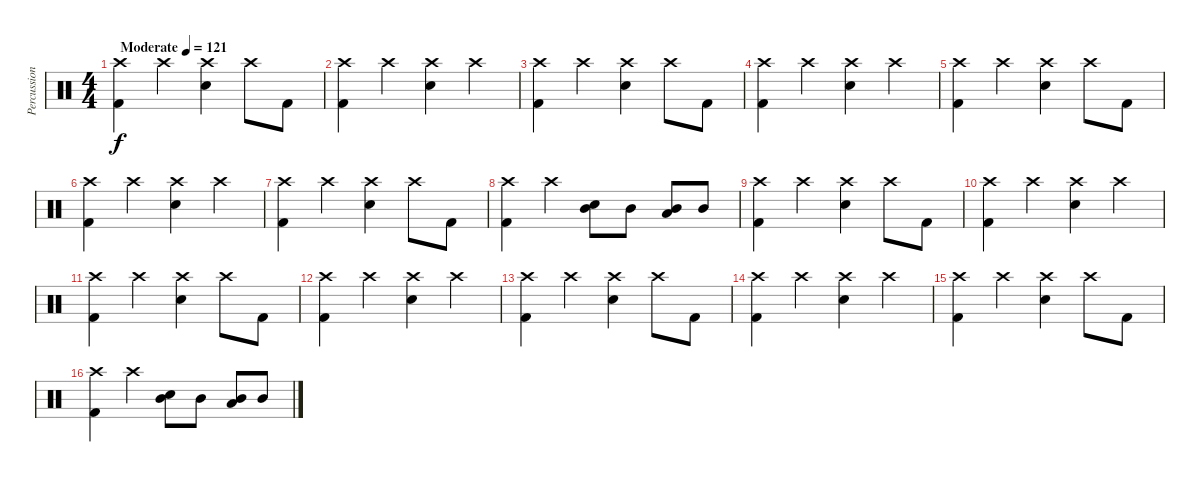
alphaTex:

\track ("Percussion" "Percussion") {instrument percussion}
\staff {score}
\articulation defaults
\ts (4 4)
\tempo (121 "Moderate")
\clef neutral
\ks c
("Crash high (hit)" "Kick (hit) 2").4{dy f} "Crash high (hit)".4 ("Crash high (hit)" "Snare (hit) 2").4 "Crash high (hit)".8 "Kick (hit) 2".8 |
("Crash high (hit)" "Kick (hit) 2").4 "Crash high (hit)".4 ("Crash high (hit)" "Snare (hit) 2").4 "Crash high (hit)".4 |
("Crash high (hit)" "Kick (hit) 2").4 "Crash high (hit)".4 ("Crash high (hit)" "Snare (hit) 2").4 "Crash high (hit)".8 "Kick (hit) 2".8 |
("Crash high (hit)" "Kick (hit) 2").4 "Crash high (hit)".4 ("Crash high (hit)" "Snare (hit) 2").4 "Crash high (hit)".4 |
("Crash high (hit)" "Kick (hit) 2").4 "Crash high (hit)".4 ("Crash high (hit)" "Snare (hit) 2").4 "Crash high (hit)".8 "Kick (hit) 2".8 |
("Crash high (hit)" "Kick (hit) 2").4 "Crash high (hit)".4 ("Crash high (hit)" "Snare (hit) 2").4 "Crash high (hit)".4 |
("Crash high (hit)" "Kick (hit) 2").4 "Crash high (hit)".4 ("Crash high (hit)" "Snare (hit) 2").4 "Crash high (hit)".8 "Kick (hit) 2".8 |
("Crash high (hit)" "Kick (hit) 2").4 "Crash high (hit)".4 ("Snare (hit) 2" "Mid Tom (hit)").8 "Mid Tom (hit)".8 ("Low Tom (hit)" "Mid Tom (hit)").8 "Mid Tom (hit)".8 |
("Crash high (hit)" "Kick (hit) 2").4 "Crash high (hit)".4 ("Crash high (hit)" "Snare (hit) 2").4 "Crash high (hit)".8 "Kick (hit) 2".8 |
("Crash high (hit)" "Kick (hit) 2").4 "Crash high (hit)".4 ("Crash high (hit)" "Snare (hit) 2").4 "Crash high (hit)".4 |
("Crash high (hit)" "Kick (hit) 2").4 "Crash high (hit)".4 ("Crash high (hit)" "Snare (hit) 2").4 "Crash high (hit)".8 "Kick (hit) 2".8 |
("Crash high (hit)" "Kick (hit) 2").4 "Crash high (hit)".4 ("Crash high (hit)" "Snare (hit) 2").4 "Crash high (hit)".4 |
("Crash high (hit)" "Kick (hit) 2").4 "Crash high (hit)".4 ("Crash high (hit)" "Snare (hit) 2").4 "Crash high (hit)".8 "Kick (hit) 2".8 |
("Crash high (hit)" "Kick (hit) 2").4 "Crash high (hit)".4 ("Crash high (hit)" "Snare (hit) 2").4 "Crash high (hit)".4 |
("Crash high (hit)" "Kick (hit) 2").4 "Crash high (hit)".4 ("Crash high (hit)" "Snare (hit) 2").4 "Crash high (hit)".8 "Kick (hit) 2".8 |
("Crash high (hit)" "Kick (hit) 2").4 "Crash high (hit)".4 ("Snare (hit) 2" "Mid Tom (hit)").8 "Mid Tom (hit)".8 ("Low Tom (hit)" "Mid Tom (hit)").8 "Mid Tom (hit)".8
